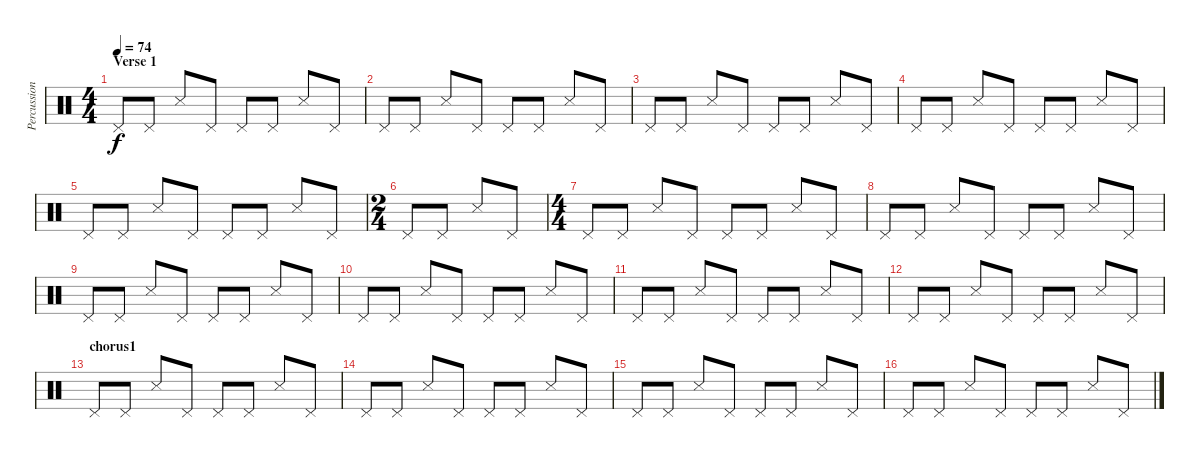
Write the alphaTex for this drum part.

\track ("Percussion" "Percussion") {instrument percussion}
\staff {score}
\articulation defaults
\ts (4 4)
\section ("" "Verse 1")
\tempo 74
\clef neutral
\ks c "Pedal Hi-Hat (hit)".8{dy f} "Pedal Hi-Hat (hit)".8 "Snare (side stick) 3".8 "Pedal Hi-Hat (hit)".8 "Pedal Hi-Hat (hit)".8 "Pedal Hi-Hat (hit)".8 "Snare (side stick) 3".8 "Pedal Hi-Hat (hit)".8
|
"Pedal Hi-Hat (hit)".8 "Pedal Hi-Hat (hit)".8 "Snare (side stick) 3".8 "Pedal Hi-Hat (hit)".8 "Pedal Hi-Hat (hit)".8 "Pedal Hi-Hat (hit)".8 "Snare (side stick) 3".8 "Pedal Hi-Hat (hit)".8 |
"Pedal Hi-Hat (hit)".8 "Pedal Hi-Hat (hit)".8 "Snare (side stick) 3".8 "Pedal Hi-Hat (hit)".8 "Pedal Hi-Hat (hit)".8 "Pedal Hi-Hat (hit)".8 "Snare (side stick) 3".8 "Pedal Hi-Hat (hit)".8 |
"Pedal Hi-Hat (hit)".8 "Pedal Hi-Hat (hit)".8 "Snare (side stick) 3".8 "Pedal Hi-Hat (hit)".8 "Pedal Hi-Hat (hit)".8 "Pedal Hi-Hat (hit)".8 "Snare (side stick) 3".8 "Pedal Hi-Hat (hit)".8 |
"Pedal Hi-Hat (hit)".8 "Pedal Hi-Hat (hit)".8 "Snare (side stick) 3".8 "Pedal Hi-Hat (hit)".8 "Pedal Hi-Hat (hit)".8 "Pedal Hi-Hat (hit)".8 "Snare (side stick) 3".8 "Pedal Hi-Hat (hit)".8 |
\ts (2 4)
"Pedal Hi-Hat (hit)".8 "Pedal Hi-Hat (hit)".8 "Snare (side stick) 3".8 "Pedal Hi-Hat (hit)".8 |
\ts (4 4)
"Pedal Hi-Hat (hit)".8 "Pedal Hi-Hat (hit)".8 "Snare (side stick) 3".8 "Pedal Hi-Hat (hit)".8 "Pedal Hi-Hat (hit)".8 "Pedal Hi-Hat (hit)".8 "Snare (side stick) 3".8 "Pedal Hi-Hat (hit)".8 |
"Pedal Hi-Hat (hit)".8 "Pedal Hi-Hat (hit)".8 "Snare (side stick) 3".8 "Pedal Hi-Hat (hit)".8 "Pedal Hi-Hat (hit)".8 "Pedal Hi-Hat (hit)".8 "Snare (side stick) 3".8 "Pedal Hi-Hat (hit)".8 |
"Pedal Hi-Hat (hit)".8 "Pedal Hi-Hat (hit)".8 "Snare (side stick) 3".8 "Pedal Hi-Hat (hit)".8 "Pedal Hi-Hat (hit)".8 "Pedal Hi-Hat (hit)".8 "Snare (side stick) 3".8 "Pedal Hi-Hat (hit)".8 |
"Pedal Hi-Hat (hit)".8 "Pedal Hi-Hat (hit)".8 "Snare (side stick) 3".8 "Pedal Hi-Hat (hit)".8 "Pedal Hi-Hat (hit)".8 "Pedal Hi-Hat (hit)".8 "Snare (side stick) 3".8 "Pedal Hi-Hat (hit)".8 |
"Pedal Hi-Hat (hit)".8 "Pedal Hi-Hat (hit)".8 "Snare (side stick) 3".8 "Pedal Hi-Hat (hit)".8 "Pedal Hi-Hat (hit)".8 "Pedal Hi-Hat (hit)".8 "Snare (side stick) 3".8 "Pedal Hi-Hat (hit)".8 |
"Pedal Hi-Hat (hit)".8 "Pedal Hi-Hat (hit)".8 "Snare (side stick) 3".8 "Pedal Hi-Hat (hit)".8 "Pedal Hi-Hat (hit)".8 "Pedal Hi-Hat (hit)".8 "Snare (side stick) 3".8 "Pedal Hi-Hat (hit)".8 |
\section ("" "chorus1")
"Pedal Hi-Hat (hit)".8 "Pedal Hi-Hat (hit)".8 "Snare (side stick) 3".8 "Pedal Hi-Hat (hit)".8 "Pedal Hi-Hat (hit)".8 "Pedal Hi-Hat (hit)".8 "Snare (side stick) 3".8 "Pedal Hi-Hat (hit)".8 |
"Pedal Hi-Hat (hit)".8 "Pedal Hi-Hat (hit)".8 "Snare (side stick) 3".8 "Pedal Hi-Hat (hit)".8 "Pedal Hi-Hat (hit)".8 "Pedal Hi-Hat (hit)".8 "Snare (side stick) 3".8 "Pedal Hi-Hat (hit)".8 |
"Pedal Hi-Hat (hit)".8 "Pedal Hi-Hat (hit)".8 "Snare (side stick) 3".8 "Pedal Hi-Hat (hit)".8 "Pedal Hi-Hat (hit)".8 "Pedal Hi-Hat (hit)".8 "Snare (side stick) 3".8 "Pedal Hi-Hat (hit)".8 |
"Pedal Hi-Hat (hit)".8 "Pedal Hi-Hat (hit)".8 "Snare (side stick) 3".8 "Pedal Hi-Hat (hit)".8 "Pedal Hi-Hat (hit)".8 "Pedal Hi-Hat (hit)".8 "Snare (side stick) 3".8 "Pedal Hi-Hat (hit)".8
